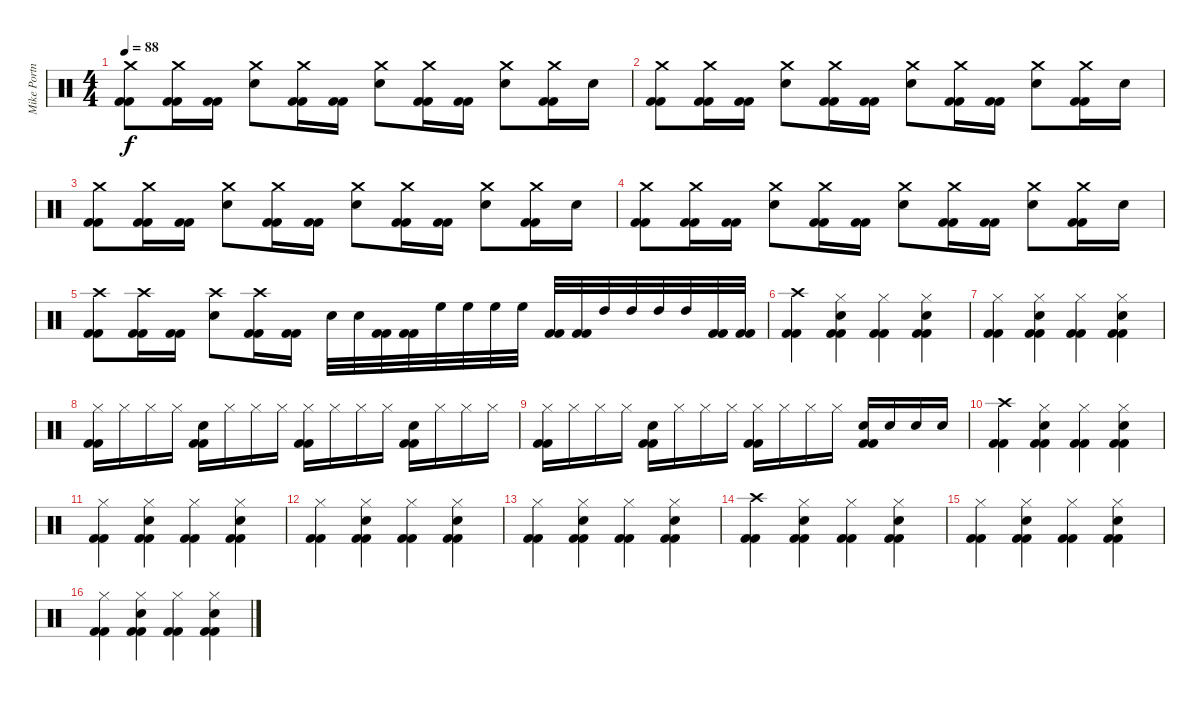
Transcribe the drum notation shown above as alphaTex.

\track ("Mike Portnoy" "Mike Portn") {instrument percussion}
\staff {score}
\articulation defaults
\ts (4 4)
\tempo 88
\clef neutral
\ks c
("Crash medium (hit)" "Kick (hit) 2" "Kick (hit) 2").8{dy f} ("Crash medium (hit)" "Kick (hit) 2" "Kick (hit) 2").16 ("Kick (hit) 2" "Kick (hit) 2").16 ("Crash medium (hit)" "Snare (hit) 2").8 ("Crash medium (hit)" "Kick (hit) 2" "Kick (hit) 2").16 ("Kick (hit) 2" "Kick (hit) 2").16 ("Crash medium (hit)" "Snare (hit) 2").8 ("Crash medium (hit)" "Kick (hit) 2" "Kick (hit) 2").16 ("Kick (hit) 2" "Kick (hit) 2").16 ("Crash medium (hit)" "Snare (hit) 2").8 ("Crash medium (hit)" "Kick (hit) 2" "Kick (hit) 2").16 "Snare (hit) 2".16 |
("Crash medium (hit)" "Kick (hit) 2" "Kick (hit) 2").8 ("Crash medium (hit)" "Kick (hit) 2" "Kick (hit) 2").16 ("Kick (hit) 2" "Kick (hit) 2").16 ("Crash medium (hit)" "Snare (hit) 2").8 ("Crash medium (hit)" "Kick (hit) 2" "Kick (hit) 2").16 ("Kick (hit) 2" "Kick (hit) 2").16 ("Crash medium (hit)" "Snare (hit) 2").8 ("Crash medium (hit)" "Kick (hit) 2" "Kick (hit) 2").16 ("Kick (hit) 2" "Kick (hit) 2").16 ("Crash medium (hit)" "Snare (hit) 2").8 ("Crash medium (hit)" "Kick (hit) 2" "Kick (hit) 2").16 "Snare (hit) 2".16 |
("Crash medium (hit)" "Kick (hit) 2" "Kick (hit) 2").8 ("Crash medium (hit)" "Kick (hit) 2" "Kick (hit) 2").16 ("Kick (hit) 2" "Kick (hit) 2").16 ("Crash medium (hit)" "Snare (hit) 2").8 ("Crash medium (hit)" "Kick (hit) 2" "Kick (hit) 2").16 ("Kick (hit) 2" "Kick (hit) 2").16 ("Crash medium (hit)" "Snare (hit) 2").8 ("Crash medium (hit)" "Kick (hit) 2" "Kick (hit) 2").16 ("Kick (hit) 2" "Kick (hit) 2").16 ("Crash medium (hit)" "Snare (hit) 2").8 ("Crash medium (hit)" "Kick (hit) 2" "Kick (hit) 2").16 "Snare (hit) 2".16 |
("Crash medium (hit)" "Kick (hit) 2" "Kick (hit) 2").8 ("Crash medium (hit)" "Kick (hit) 2" "Kick (hit) 2").16 ("Kick (hit) 2" "Kick (hit) 2").16 ("Crash medium (hit)" "Snare (hit) 2").8 ("Crash medium (hit)" "Kick (hit) 2" "Kick (hit) 2").16 ("Kick (hit) 2" "Kick (hit) 2").16 ("Crash medium (hit)" "Snare (hit) 2").8 ("Crash medium (hit)" "Kick (hit) 2" "Kick (hit) 2").16 ("Kick (hit) 2" "Kick (hit) 2").16 ("Crash medium (hit)" "Snare (hit) 2").8 ("Crash medium (hit)" "Kick (hit) 2" "Kick (hit) 2").16 "Snare (hit) 2".16 |
("Crash high (hit)" "Kick (hit) 2" "Kick (hit) 2").8 ("Crash high (hit)" "Kick (hit) 2" "Kick (hit) 2").16 ("Kick (hit) 2" "Kick (hit) 2").16 ("Crash high (hit)" "Snare (hit) 2").8 ("Crash high (hit)" "Kick (hit) 2" "Kick (hit) 2").16 ("Kick (hit) 2" "Kick (hit) 2").16 "Snare (hit) 2".32 "Snare (hit) 2".32 ("Kick (hit) 2" "Kick (hit) 2").32 ("Kick (hit) 2" "Kick (hit) 2").32 "High Floor Tom (hit)".32 "High Floor Tom (hit)".32 "High Floor Tom (hit)".32 "High Floor Tom (hit)".32 ("Kick (hit) 2" "Kick (hit) 2").32 ("Kick (hit) 2" "Kick (hit) 2").32 "High Tom (hit)".32 "High Tom (hit)".32 "High Tom (hit)".32 "High Tom (hit)".32 ("Kick (hit) 2" "Kick (hit) 2").32 ("Kick (hit) 2" "Kick (hit) 2").32 |
("Crash high (hit)" "Kick (hit) 2" "Kick (hit) 2").4 ("Hi-Hat (closed)" "Snare (hit) 2" "Kick (hit) 2" "Kick (hit) 2").4 ("Hi-Hat (closed)" "Kick (hit) 2" "Kick (hit) 2").4 ("Hi-Hat (closed)" "Snare (hit) 2" "Kick (hit) 2" "Kick (hit) 2").4 |
("Hi-Hat (closed)" "Kick (hit) 2" "Kick (hit) 2").4 ("Hi-Hat (closed)" "Snare (hit) 2" "Kick (hit) 2" "Kick (hit) 2").4 ("Hi-Hat (closed)" "Kick (hit) 2" "Kick (hit) 2").4 ("Hi-Hat (closed)" "Snare (hit) 2" "Kick (hit) 2" "Kick (hit) 2").4 |
("Hi-Hat (closed)" "Kick (hit) 2" "Kick (hit) 2").16 "Hi-Hat (closed)".16 "Hi-Hat (closed)".16 "Hi-Hat (closed)".16 ("Snare (hit) 2" "Kick (hit) 2" "Kick (hit) 2").16 "Hi-Hat (closed)".16 "Hi-Hat (closed)".16 "Hi-Hat (closed)".16 ("Hi-Hat (closed)" "Kick (hit) 2" "Kick (hit) 2").16 "Hi-Hat (closed)".16 "Hi-Hat (closed)".16 "Hi-Hat (closed)".16 ("Snare (hit) 2" "Kick (hit) 2" "Kick (hit) 2").16 "Hi-Hat (closed)".16 "Hi-Hat (closed)".16 "Hi-Hat (closed)".16 |
("Hi-Hat (closed)" "Kick (hit) 2" "Kick (hit) 2").16 "Hi-Hat (closed)".16 "Hi-Hat (closed)".16 "Hi-Hat (closed)".16 ("Snare (hit) 2" "Kick (hit) 2" "Kick (hit) 2").16 "Hi-Hat (closed)".16 "Hi-Hat (closed)".16 "Hi-Hat (closed)".16 ("Hi-Hat (closed)" "Kick (hit) 2" "Kick (hit) 2").16 "Hi-Hat (closed)".16 "Hi-Hat (closed)".16 "Hi-Hat (closed)".16 ("Snare (hit) 2" "Kick (hit) 2" "Kick (hit) 2").16 "Snare (hit) 2".16 "Snare (hit) 2".16 "Snare (hit) 2".16 |
("Crash high (hit)" "Kick (hit) 2" "Kick (hit) 2").4 ("Hi-Hat (closed)" "Snare (hit) 2" "Kick (hit) 2" "Kick (hit) 2").4 ("Hi-Hat (closed)" "Kick (hit) 2" "Kick (hit) 2").4 ("Hi-Hat (closed)" "Snare (hit) 2" "Kick (hit) 2" "Kick (hit) 2").4 |
("Hi-Hat (closed)" "Kick (hit) 2" "Kick (hit) 2").4 ("Hi-Hat (closed)" "Snare (hit) 2" "Kick (hit) 2" "Kick (hit) 2").4 ("Hi-Hat (closed)" "Kick (hit) 2" "Kick (hit) 2").4 ("Hi-Hat (closed)" "Snare (hit) 2" "Kick (hit) 2" "Kick (hit) 2").4 |
("Hi-Hat (closed)" "Kick (hit) 2" "Kick (hit) 2").4 ("Hi-Hat (closed)" "Snare (hit) 2" "Kick (hit) 2" "Kick (hit) 2").4 ("Hi-Hat (closed)" "Kick (hit) 2" "Kick (hit) 2").4 ("Hi-Hat (closed)" "Snare (hit) 2" "Kick (hit) 2" "Kick (hit) 2").4 |
("Hi-Hat (closed)" "Kick (hit) 2" "Kick (hit) 2").4 ("Hi-Hat (closed)" "Snare (hit) 2" "Kick (hit) 2" "Kick (hit) 2").4 ("Hi-Hat (closed)" "Kick (hit) 2" "Kick (hit) 2").4 ("Hi-Hat (closed)" "Snare (hit) 2" "Kick (hit) 2" "Kick (hit) 2").4 |
("Crash high (hit)" "Kick (hit) 2" "Kick (hit) 2").4 ("Hi-Hat (closed)" "Snare (hit) 2" "Kick (hit) 2" "Kick (hit) 2").4 ("Hi-Hat (closed)" "Kick (hit) 2" "Kick (hit) 2").4 ("Hi-Hat (closed)" "Snare (hit) 2" "Kick (hit) 2" "Kick (hit) 2").4 |
("Hi-Hat (closed)" "Kick (hit) 2" "Kick (hit) 2").4 ("Hi-Hat (closed)" "Snare (hit) 2" "Kick (hit) 2" "Kick (hit) 2").4 ("Hi-Hat (closed)" "Kick (hit) 2" "Kick (hit) 2").4 ("Hi-Hat (closed)" "Snare (hit) 2" "Kick (hit) 2" "Kick (hit) 2").4 |
("Hi-Hat (closed)" "Kick (hit) 2" "Kick (hit) 2").4 ("Hi-Hat (closed)" "Snare (hit) 2" "Kick (hit) 2" "Kick (hit) 2").4 ("Hi-Hat (closed)" "Kick (hit) 2" "Kick (hit) 2").4 ("Hi-Hat (closed)" "Snare (hit) 2" "Kick (hit) 2" "Kick (hit) 2").4
